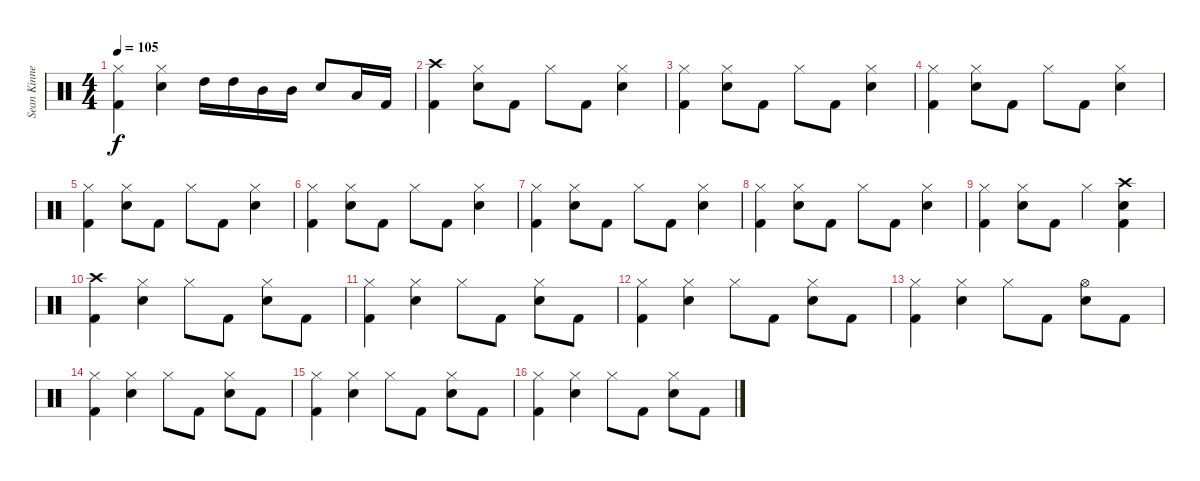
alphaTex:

\track ("Sean Kinney- Drums" "Sean Kinne") {instrument percussion}
\staff {score}
\articulation defaults
\ts (4 4)
\tempo 105
\clef neutral
\ks c
("Hi-Hat (closed)" "Kick (hit) 2").4{dy f} ("Hi-Hat (closed)" "Electric Snare (hit)").4 "High Tom (hit)".16 "High Tom (hit)".16 "Mid Tom (hit)".16 "Mid Tom (hit)".16 "Electric Snare (hit)".8 "Low Tom (hit)".16 "Kick (hit) 2".16 |
("Crash high (hit)" "Kick (hit) 2").4 ("Hi-Hat (closed)" "Electric Snare (hit)").8 "Kick (hit) 2".8 "Hi-Hat (closed)".8 "Kick (hit) 2".8 ("Hi-Hat (closed)" "Electric Snare (hit)").4 |
("Hi-Hat (closed)" "Kick (hit) 2").4 ("Hi-Hat (closed)" "Electric Snare (hit)").8 "Kick (hit) 2".8 "Hi-Hat (closed)".8 "Kick (hit) 2".8 ("Hi-Hat (closed)" "Electric Snare (hit)").4 |
("Hi-Hat (closed)" "Kick (hit) 2").4 ("Hi-Hat (closed)" "Electric Snare (hit)").8 "Kick (hit) 2".8 "Hi-Hat (closed)".8 "Kick (hit) 2".8 ("Hi-Hat (closed)" "Electric Snare (hit)").4 |
("Hi-Hat (closed)" "Kick (hit) 2").4 ("Hi-Hat (closed)" "Electric Snare (hit)").8 "Kick (hit) 2".8 "Hi-Hat (closed)".8 "Kick (hit) 2".8 ("Hi-Hat (closed)" "Electric Snare (hit)").4 |
("Hi-Hat (closed)" "Kick (hit) 2").4 ("Hi-Hat (closed)" "Electric Snare (hit)").8 "Kick (hit) 2".8 "Hi-Hat (closed)".8 "Kick (hit) 2".8 ("Hi-Hat (closed)" "Electric Snare (hit)").4 |
("Hi-Hat (closed)" "Kick (hit) 2").4 ("Hi-Hat (closed)" "Electric Snare (hit)").8 "Kick (hit) 2".8 "Hi-Hat (closed)".8 "Kick (hit) 2".8 ("Hi-Hat (closed)" "Electric Snare (hit)").4 |
("Hi-Hat (closed)" "Kick (hit) 2").4 ("Hi-Hat (closed)" "Electric Snare (hit)").8 "Kick (hit) 2".8 "Hi-Hat (closed)".8 "Kick (hit) 2".8 ("Hi-Hat (closed)" "Electric Snare (hit)").4 |
("Hi-Hat (closed)" "Kick (hit) 2").4 ("Hi-Hat (closed)" "Electric Snare (hit)").8 "Kick (hit) 2".8 "Hi-Hat (closed)".4 ("Crash high (hit)" "Electric Snare (hit)" "Kick (hit) 2").4 |
("Crash high (hit)" "Kick (hit) 2").4 ("Hi-Hat (closed)" "Electric Snare (hit)").4 "Hi-Hat (closed)".8 "Kick (hit) 2".8 ("Hi-Hat (closed)" "Electric Snare (hit)").8 "Kick (hit) 2".8 |
("Hi-Hat (closed)" "Kick (hit) 2").4 ("Hi-Hat (closed)" "Electric Snare (hit)").4 "Hi-Hat (closed)".8 "Kick (hit) 2".8 ("Hi-Hat (closed)" "Electric Snare (hit)").8 "Kick (hit) 2".8 |
("Hi-Hat (closed)" "Kick (hit) 2").4 ("Hi-Hat (closed)" "Electric Snare (hit)").4 "Hi-Hat (closed)".8 "Kick (hit) 2".8 ("Hi-Hat (closed)" "Electric Snare (hit)").8 "Kick (hit) 2".8 |
("Hi-Hat (closed)" "Kick (hit) 2").4 ("Hi-Hat (closed)" "Electric Snare (hit)").4 "Hi-Hat (closed)".8 "Kick (hit) 2".8 ("Hi-Hat (open)" "Electric Snare (hit)").8 "Kick (hit) 2".8 |
("Hi-Hat (closed)" "Kick (hit) 2").4 ("Hi-Hat (closed)" "Electric Snare (hit)").4 "Hi-Hat (closed)".8 "Kick (hit) 2".8 ("Hi-Hat (closed)" "Electric Snare (hit)").8 "Kick (hit) 2".8 |
("Hi-Hat (closed)" "Kick (hit) 2").4 ("Hi-Hat (closed)" "Electric Snare (hit)").4 "Hi-Hat (closed)".8 "Kick (hit) 2".8 ("Hi-Hat (closed)" "Electric Snare (hit)").8 "Kick (hit) 2".8 |
("Hi-Hat (closed)" "Kick (hit) 2").4 ("Hi-Hat (closed)" "Electric Snare (hit)").4 "Hi-Hat (closed)".8 "Kick (hit) 2".8 ("Hi-Hat (closed)" "Electric Snare (hit)").8 "Kick (hit) 2".8
